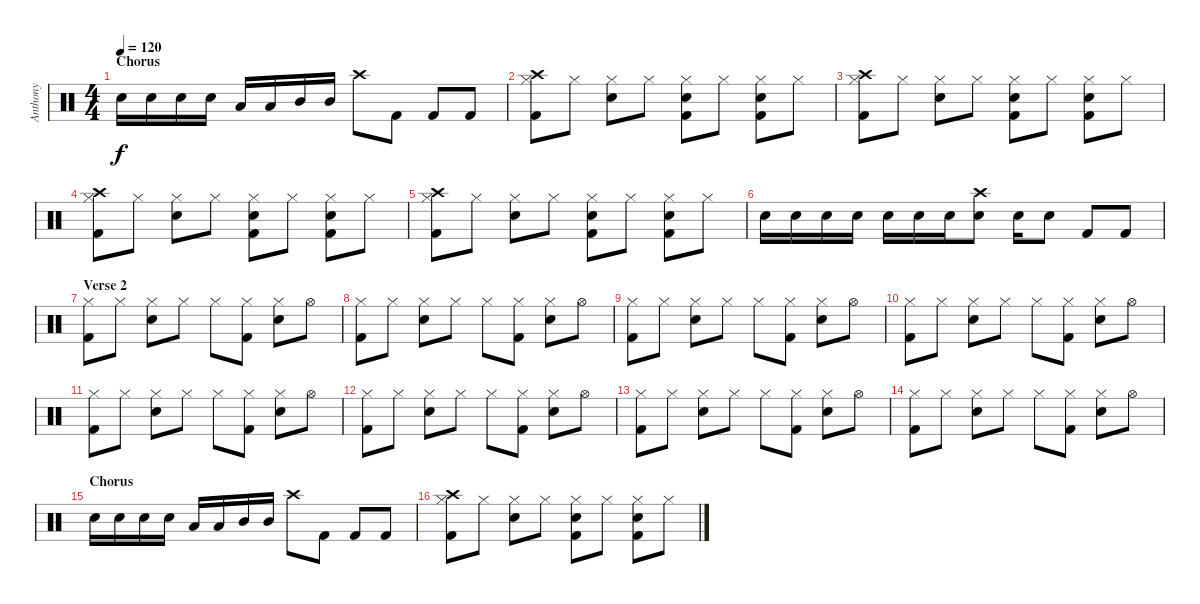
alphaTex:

\track ("Anthony" "Anthony") {instrument percussion}
\staff {score}
\articulation defaults
\ts (4 4)
\section ("" "Chorus")
\tempo 120
\clef neutral
\ks c "Snare (hit) 2".16{dy f} "Snare (hit) 2".16 "Snare (hit) 2".16 "Snare (hit) 2".16 "Low Tom (hit)".16 "Low Tom (hit)".16 "Mid Tom (hit)".16 "Mid Tom (hit)".16 "Crash high (hit)".8 "Kick (hit) 2".8 "Kick (hit) 2".8 "Kick (hit) 2".8
|
("Hi-Hat (closed)" "Crash high (hit)" "Kick (hit) 2").8 "Hi-Hat (closed)".8 ("Hi-Hat (closed)" "Snare (hit) 2").8 "Hi-Hat (closed)".8 ("Hi-Hat (closed)" "Snare (hit) 2" "Kick (hit) 2").8 "Hi-Hat (closed)".8 ("Hi-Hat (closed)" "Snare (hit) 2" "Kick (hit) 2").8 "Hi-Hat (closed)".8 |
("Hi-Hat (closed)" "Crash high (hit)" "Kick (hit) 2").8 "Hi-Hat (closed)".8 ("Hi-Hat (closed)" "Snare (hit) 2").8 "Hi-Hat (closed)".8 ("Hi-Hat (closed)" "Snare (hit) 2" "Kick (hit) 2").8 "Hi-Hat (closed)".8 ("Hi-Hat (closed)" "Snare (hit) 2" "Kick (hit) 2").8 "Hi-Hat (closed)".8 |
("Hi-Hat (closed)" "Crash high (hit)" "Kick (hit) 2").8 "Hi-Hat (closed)".8 ("Hi-Hat (closed)" "Snare (hit) 2").8 "Hi-Hat (closed)".8 ("Hi-Hat (closed)" "Snare (hit) 2" "Kick (hit) 2").8 "Hi-Hat (closed)".8 ("Hi-Hat (closed)" "Snare (hit) 2" "Kick (hit) 2").8 "Hi-Hat (closed)".8 |
("Hi-Hat (closed)" "Crash high (hit)" "Kick (hit) 2").8 "Hi-Hat (closed)".8 ("Hi-Hat (closed)" "Snare (hit) 2").8 "Hi-Hat (closed)".8 ("Hi-Hat (closed)" "Snare (hit) 2" "Kick (hit) 2").8 "Hi-Hat (closed)".8 ("Hi-Hat (closed)" "Snare (hit) 2" "Kick (hit) 2").8 "Hi-Hat (closed)".8 |
"Snare (hit) 2".16 "Snare (hit) 2".16 "Snare (hit) 2".16 "Snare (hit) 2".16 "Snare (hit) 2".16 "Snare (hit) 2".16 "Snare (hit) 2".16 ("Snare (hit) 2" "Crash high (hit)").8 "Snare (hit) 2".16 "Snare (hit) 2".8 "Kick (hit) 2".8 "Kick (hit) 2".8 |
\section ("" "Verse 2")
("Hi-Hat (closed)" "Kick (hit) 2").8 "Hi-Hat (closed)".8 ("Hi-Hat (closed)" "Snare (hit) 2").8 "Hi-Hat (closed)".8 "Hi-Hat (closed)".8 ("Hi-Hat (closed)" "Kick (hit) 2").8 ("Hi-Hat (closed)" "Snare (hit) 2").8 "Hi-Hat (open)".8 |
("Hi-Hat (closed)" "Kick (hit) 2").8 "Hi-Hat (closed)".8 ("Hi-Hat (closed)" "Snare (hit) 2").8 "Hi-Hat (closed)".8 "Hi-Hat (closed)".8 ("Hi-Hat (closed)" "Kick (hit) 2").8 ("Hi-Hat (closed)" "Snare (hit) 2").8 "Hi-Hat (open)".8 |
("Hi-Hat (closed)" "Kick (hit) 2").8 "Hi-Hat (closed)".8 ("Hi-Hat (closed)" "Snare (hit) 2").8 "Hi-Hat (closed)".8 "Hi-Hat (closed)".8 ("Hi-Hat (closed)" "Kick (hit) 2").8 ("Hi-Hat (closed)" "Snare (hit) 2").8 "Hi-Hat (open)".8 |
("Hi-Hat (closed)" "Kick (hit) 2").8 "Hi-Hat (closed)".8 ("Hi-Hat (closed)" "Snare (hit) 2").8 "Hi-Hat (closed)".8 "Hi-Hat (closed)".8 ("Hi-Hat (closed)" "Kick (hit) 2").8 ("Hi-Hat (closed)" "Snare (hit) 2").8 "Hi-Hat (open)".8 |
("Hi-Hat (closed)" "Kick (hit) 2").8 "Hi-Hat (closed)".8 ("Hi-Hat (closed)" "Snare (hit) 2").8 "Hi-Hat (closed)".8 "Hi-Hat (closed)".8 ("Hi-Hat (closed)" "Kick (hit) 2").8 ("Hi-Hat (closed)" "Snare (hit) 2").8 "Hi-Hat (open)".8 |
("Hi-Hat (closed)" "Kick (hit) 2").8 "Hi-Hat (closed)".8 ("Hi-Hat (closed)" "Snare (hit) 2").8 "Hi-Hat (closed)".8 "Hi-Hat (closed)".8 ("Hi-Hat (closed)" "Kick (hit) 2").8 ("Hi-Hat (closed)" "Snare (hit) 2").8 "Hi-Hat (open)".8 |
("Hi-Hat (closed)" "Kick (hit) 2").8 "Hi-Hat (closed)".8 ("Hi-Hat (closed)" "Snare (hit) 2").8 "Hi-Hat (closed)".8 "Hi-Hat (closed)".8 ("Hi-Hat (closed)" "Kick (hit) 2").8 ("Hi-Hat (closed)" "Snare (hit) 2").8 "Hi-Hat (open)".8 |
("Hi-Hat (closed)" "Kick (hit) 2").8 "Hi-Hat (closed)".8 ("Hi-Hat (closed)" "Snare (hit) 2").8 "Hi-Hat (closed)".8 "Hi-Hat (closed)".8 ("Hi-Hat (closed)" "Kick (hit) 2").8 ("Hi-Hat (closed)" "Snare (hit) 2").8 "Hi-Hat (open)".8 |
\section ("" "Chorus")
"Snare (hit) 2".16 "Snare (hit) 2".16 "Snare (hit) 2".16 "Snare (hit) 2".16 "Low Tom (hit)".16 "Low Tom (hit)".16 "Mid Tom (hit)".16 "Mid Tom (hit)".16 "Crash high (hit)".8 "Kick (hit) 2".8 "Kick (hit) 2".8 "Kick (hit) 2".8 |
("Hi-Hat (closed)" "Crash high (hit)" "Kick (hit) 2").8 "Hi-Hat (closed)".8 ("Hi-Hat (closed)" "Snare (hit) 2").8 "Hi-Hat (closed)".8 ("Hi-Hat (closed)" "Snare (hit) 2" "Kick (hit) 2").8 "Hi-Hat (closed)".8 ("Hi-Hat (closed)" "Snare (hit) 2" "Kick (hit) 2").8 "Hi-Hat (closed)".8
